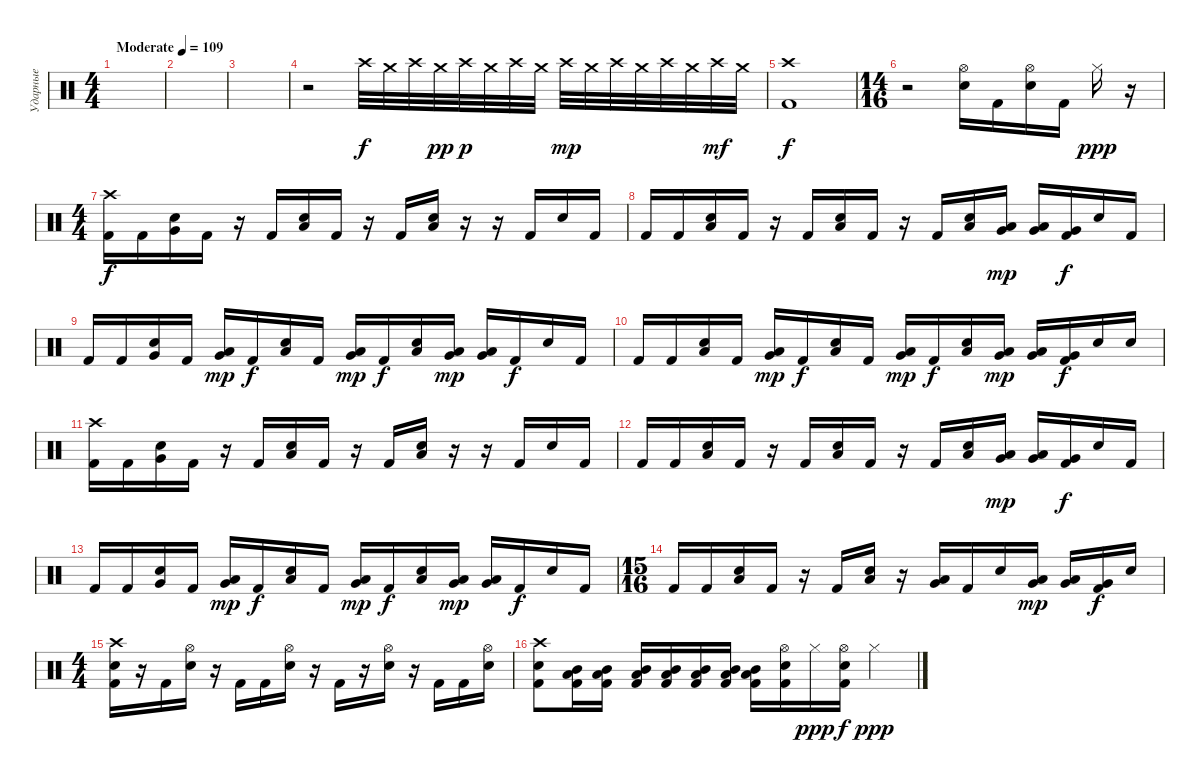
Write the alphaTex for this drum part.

\track ("Ударные" "Ударные") {instrument percussion}
\staff {score}
\articulation defaults
\ts (4 4)
\tempo (109 "Moderate")
\clef neutral
\ks c
|
|
|
r.2 "Crash high (hit)".32 "Crash medium (hit)".32 "Crash high (hit)".32 "Crash medium (hit)".32{dy pp} "Crash high (hit)".32{dy p} "Crash medium (hit)".32 "Crash high (hit)".32 "Crash medium (hit)".32 "Crash high (hit)".32{dy mp} "Crash medium (hit)".32 "Crash high (hit)".32 "Crash medium (hit)".32 "Crash high (hit)".32 "Crash medium (hit)".32 "Crash high (hit)".32{dy mf} "Crash medium (hit)".32 |
("Crash high (hit)" "Kick (hit) 2").1{dy f} |
\ts (14 16)
r.2 ("Hi-Hat (open)" "Electric Snare (hit)").16 "Kick (hit) 2".16 ("Hi-Hat (open)" "Electric Snare (hit)").16 "Kick (hit) 2".16 "Hi-Hat (closed)".16{dy ppp} r.16 |
\ts (4 4)
("Crash high (hit)" "Kick (hit) 2").16{dy f} "Kick (hit) 2".16 ("Very Low Tom (hit)" "Electric Snare (hit)").16 "Kick (hit) 2".16 r.16 "Kick (hit) 2".16 ("Low Tom (hit)" "Electric Snare (hit)").16 "Kick (hit) 2".16 r.16 "Kick (hit) 2".16 ("Low Tom (hit)" "Electric Snare (hit)").16 r.16 r.16 "Kick (hit) 2".16 "Electric Snare (hit)".16 "Kick (hit) 2".16 |
"Kick (hit) 2".16 "Kick (hit) 2".16 ("Low Tom (hit)" "Electric Snare (hit)").16 "Kick (hit) 2".16 r.16 "Kick (hit) 2".16 ("Low Tom (hit)" "Electric Snare (hit)").16 "Kick (hit) 2".16 r.16 "Kick (hit) 2".16 ("Low Tom (hit)" "Electric Snare (hit)").16 ("Very Low Tom (hit)" "Low Tom (hit)").16{dy mp} ("Very Low Tom (hit)" "Low Tom (hit)").16 ("Very Low Tom (hit)" "Kick (hit) 2").16{dy f} "Electric Snare (hit)".16 "Kick (hit) 2".16 |
"Kick (hit) 2".16 "Kick (hit) 2".16 ("Very Low Tom (hit)" "Electric Snare (hit)").16 "Kick (hit) 2".16 ("Very Low Tom (hit)" "Low Tom (hit)").16{dy mp} "Kick (hit) 2".16{dy f} ("Low Tom (hit)" "Electric Snare (hit)").16 "Kick (hit) 2".16 ("Very Low Tom (hit)" "Low Tom (hit)").16{dy mp} "Kick (hit) 2".16{dy f} ("Low Tom (hit)" "Electric Snare (hit)").16 ("Very Low Tom (hit)" "Low Tom (hit)").16{dy mp} ("Low Tom (hit)" "Very Low Tom (hit)").16 "Kick (hit) 2".16{dy f} "Electric Snare (hit)".16 "Kick (hit) 2".16 |
"Kick (hit) 2".16 "Kick (hit) 2".16 ("Low Tom (hit)" "Electric Snare (hit)").16 "Kick (hit) 2".16 ("Very Low Tom (hit)" "Low Tom (hit)").16{dy mp} "Kick (hit) 2".16{dy f} ("Low Tom (hit)" "Electric Snare (hit)").16 "Kick (hit) 2".16 ("Very Low Tom (hit)" "Low Tom (hit)").16{dy mp} "Kick (hit) 2".16{dy f} ("Low Tom (hit)" "Electric Snare (hit)").16 ("Very Low Tom (hit)" "Low Tom (hit)").16{dy mp} ("Very Low Tom (hit)" "Low Tom (hit)").16 ("Very Low Tom (hit)" "Kick (hit) 2").16{dy f} "Electric Snare (hit)".16 "Electric Snare (hit)".16 |
("Crash high (hit)" "Kick (hit) 2").16 "Kick (hit) 2".16 ("Very Low Tom (hit)" "Electric Snare (hit)").16 "Kick (hit) 2".16 r.16 "Kick (hit) 2".16 ("Low Tom (hit)" "Electric Snare (hit)").16 "Kick (hit) 2".16 r.16 "Kick (hit) 2".16 ("Low Tom (hit)" "Electric Snare (hit)").16 r.16 r.16 "Kick (hit) 2".16 "Electric Snare (hit)".16 "Kick (hit) 2".16 |
"Kick (hit) 2".16 "Kick (hit) 2".16 ("Low Tom (hit)" "Electric Snare (hit)").16 "Kick (hit) 2".16 r.16 "Kick (hit) 2".16 ("Low Tom (hit)" "Electric Snare (hit)").16 "Kick (hit) 2".16 r.16 "Kick (hit) 2".16 ("Low Tom (hit)" "Electric Snare (hit)").16 ("Very Low Tom (hit)" "Low Tom (hit)").16{dy mp} ("Very Low Tom (hit)" "Low Tom (hit)").16 ("Very Low Tom (hit)" "Kick (hit) 2").16{dy f} "Electric Snare (hit)".16 "Kick (hit) 2".16 |
"Kick (hit) 2".16 "Kick (hit) 2".16 ("Very Low Tom (hit)" "Electric Snare (hit)").16 "Kick (hit) 2".16 ("Very Low Tom (hit)" "Low Tom (hit)").16{dy mp} "Kick (hit) 2".16{dy f} ("Low Tom (hit)" "Electric Snare (hit)").16 "Kick (hit) 2".16 ("Very Low Tom (hit)" "Low Tom (hit)").16{dy mp} "Kick (hit) 2".16{dy f} ("Low Tom (hit)" "Electric Snare (hit)").16 ("Very Low Tom (hit)" "Low Tom (hit)").16{dy mp} ("Low Tom (hit)" "Very Low Tom (hit)").16 "Kick (hit) 2".16{dy f} "Electric Snare (hit)".16 "Kick (hit) 2".16 |
\ts (15 16)
"Kick (hit) 2".16 "Kick (hit) 2".16 ("Low Tom (hit)" "Electric Snare (hit)").16 "Kick (hit) 2".16 r.16 "Kick (hit) 2".16 ("Low Tom (hit)" "Electric Snare (hit)").16 r.16 ("Low Tom (hit)" "Very Low Tom (hit)").16 "Kick (hit) 2".16 "Electric Snare (hit)".16 ("Very Low Tom (hit)" "Low Tom (hit)").16{dy mp} ("Very Low Tom (hit)" "Low Tom (hit)").16 ("Very Low Tom (hit)" "Kick (hit) 2").16{dy f} "Electric Snare (hit)".16 |
\ts (4 4)
("Crash high (hit)" "Electric Snare (hit)" "Kick (hit) 2").16 r.16 "Kick (hit) 2".16 ("Hi-Hat (open)" "Electric Snare (hit)").16 r.16 "Kick (hit) 2".16 "Kick (hit) 2".16 ("Hi-Hat (open)" "Electric Snare (hit)").16 r.16 "Kick (hit) 2".16 r.16 ("Hi-Hat (open)" "Electric Snare (hit)").16 r.16 "Kick (hit) 2".16 "Kick (hit) 2".16 ("Hi-Hat (open)" "Electric Snare (hit)").16 |
("Crash high (hit)" "Electric Snare (hit)" "Kick (hit) 2").8 ("Low Tom (hit)" "Mid Tom (hit)" "Kick (hit) 2").16 ("Mid Tom (hit)" "Low Tom (hit)" "Kick (hit) 2").16 ("Mid Tom (hit)" "Low Tom (hit)" "Kick (hit) 2").16 ("Mid Tom (hit)" "Low Tom (hit)" "Kick (hit) 2").16 ("Mid Tom (hit)" "Low Tom (hit)" "Kick (hit) 2").16 ("Mid Tom (hit)" "Low Tom (hit)" "Kick (hit) 2").16 ("Mid Tom (hit)" "Low Tom (hit)" "Kick (hit) 2").16 ("Hi-Hat (open)" "Electric Snare (hit)" "Kick (hit) 2").16 "Hi-Hat (closed)".16{dy ppp} ("Hi-Hat (open)" "Electric Snare (hit)" "Kick (hit) 2").16{dy f} "Hi-Hat (closed)".4{dy ppp}
